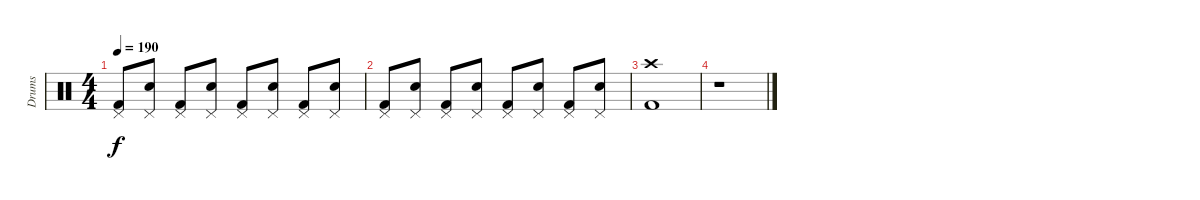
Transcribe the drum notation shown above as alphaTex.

\track ("Drums" "Drums") {instrument percussion}
\staff {score}
\articulation defaults
\ts (4 4)
\tempo 190
\clef neutral
\ks c
("Pedal Hi-Hat (hit)" "Kick (hit) 2").8{dy f} ("Pedal Hi-Hat (hit)" "Snare (hit) 2").8 ("Pedal Hi-Hat (hit)" "Kick (hit) 2").8 ("Pedal Hi-Hat (hit)" "Snare (hit) 2").8 ("Pedal Hi-Hat (hit)" "Kick (hit) 2").8 ("Pedal Hi-Hat (hit)" "Snare (hit) 2").8 ("Pedal Hi-Hat (hit)" "Kick (hit) 2").8 ("Pedal Hi-Hat (hit)" "Snare (hit) 2").8 |
("Pedal Hi-Hat (hit)" "Kick (hit) 2").8 ("Pedal Hi-Hat (hit)" "Snare (hit) 2").8 ("Pedal Hi-Hat (hit)" "Kick (hit) 2").8 ("Pedal Hi-Hat (hit)" "Snare (hit) 2").8 ("Pedal Hi-Hat (hit)" "Kick (hit) 2").8 ("Pedal Hi-Hat (hit)" "Snare (hit) 2").8 ("Pedal Hi-Hat (hit)" "Kick (hit) 2").8 ("Pedal Hi-Hat (hit)" "Snare (hit) 2").8 |
("Crash high (hit)" "Kick (hit) 2").1 |
r.1
